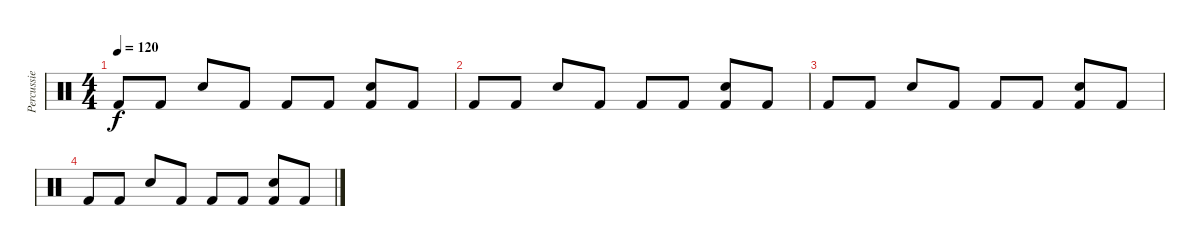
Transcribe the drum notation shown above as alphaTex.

\track ("Percussie" "Percussie") {instrument percussion}
\staff {score}
\articulation defaults
\ts (4 4)
\tempo 120
\clef neutral
\ks c "Kick (hit) 2".8{dy f} "Kick (hit) 2".8 "Snare (hit) 2".8 "Kick (hit) 2".8 "Kick (hit) 2".8 "Kick (hit) 2".8
("Snare (hit) 2" "Kick (hit) 2").8 "Kick (hit) 2".8 |
"Kick (hit) 2".8 "Kick (hit) 2".8 "Snare (hit) 2".8 "Kick (hit) 2".8 "Kick (hit) 2".8 "Kick (hit) 2".8 ("Snare (hit) 2" "Kick (hit) 2").8 "Kick (hit) 2".8 |
"Kick (hit) 2".8 "Kick (hit) 2".8 "Snare (hit) 2".8 "Kick (hit) 2".8 "Kick (hit) 2".8 "Kick (hit) 2".8 ("Snare (hit) 2" "Kick (hit) 2").8 "Kick (hit) 2".8 |
"Kick (hit) 2".8 "Kick (hit) 2".8 "Snare (hit) 2".8 "Kick (hit) 2".8 "Kick (hit) 2".8 "Kick (hit) 2".8 ("Snare (hit) 2" "Kick (hit) 2").8 "Kick (hit) 2".8
